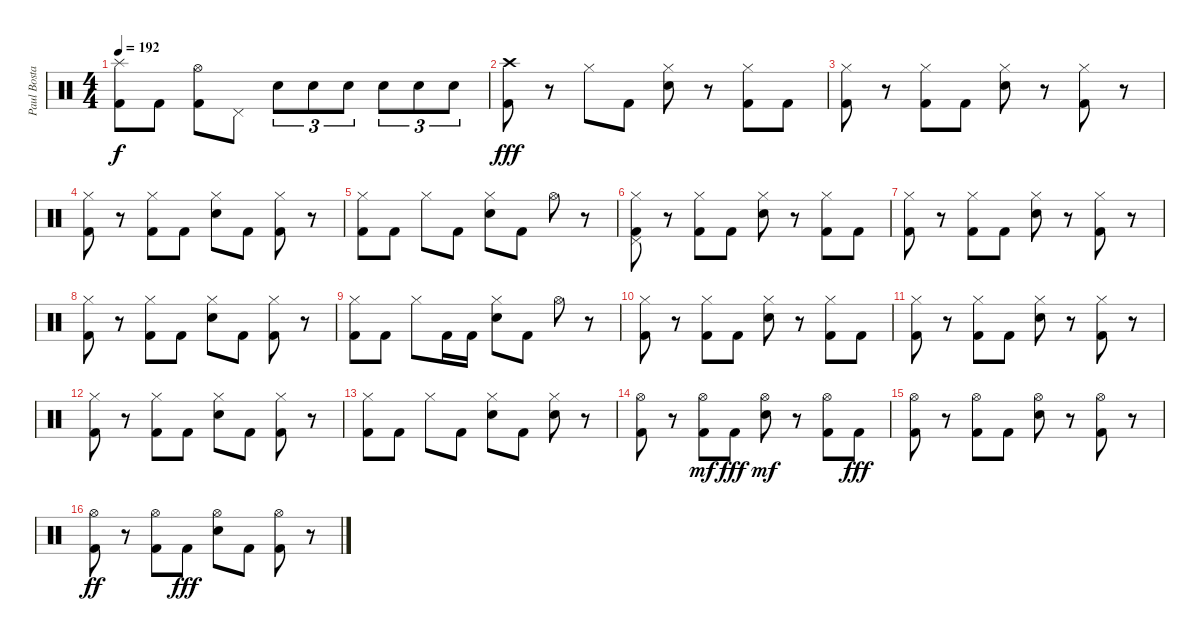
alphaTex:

\track ("Paul Bostaph" "Paul Bosta") {instrument percussion}
\staff {score}
\articulation defaults
\ts (4 4)
\tempo 192
\clef neutral
\ks c
("Splash (hit)" "Kick (hit) 2").8{dy f} "Kick (hit) 2".8 ("Hi-Hat (open)" "Kick (hit) 2").8 "Pedal Hi-Hat (hit)".8 "Electric Snare (hit)".8{tu (3 2)} "Electric Snare (hit)".8{tu (3 2)} "Electric Snare (hit)".8{tu (3 2)} "Electric Snare (hit)".8{tu (3 2)} "Electric Snare (hit)".8{tu (3 2)} "Electric Snare (hit)".8{tu (3 2)} |
("Crash high (hit)" "Kick (hit) 2").8{dy fff} r.8 "Hi-Hat (closed)".8 "Kick (hit) 2".8 ("Electric Snare (hit)" "Hi-Hat (closed)").8 r.8 ("Kick (hit) 2" "Hi-Hat (closed)").8 "Kick (hit) 2".8 |
("Kick (hit) 2" "Hi-Hat (closed)").8 r.8 ("Kick (hit) 2" "Hi-Hat (closed)").8 "Kick (hit) 2".8 ("Electric Snare (hit)" "Hi-Hat (closed)").8 r.8 ("Kick (hit) 2" "Hi-Hat (closed)").8 r.8 |
("Kick (hit) 2" "Hi-Hat (closed)").8 r.8 ("Kick (hit) 2" "Hi-Hat (closed)").8 "Kick (hit) 2".8 ("Electric Snare (hit)" "Hi-Hat (closed)").8 "Kick (hit) 2".8 ("Kick (hit) 2" "Hi-Hat (closed)").8 r.8 |
("Kick (hit) 2" "Hi-Hat (closed)").8 "Kick (hit) 2".8 "Hi-Hat (closed)".8 "Kick (hit) 2".8 ("Electric Snare (hit)" "Hi-Hat (closed)").8 "Kick (hit) 2".8 "Hi-Hat (open)".8 r.8 |
("Pedal Hi-Hat (hit)" "Kick (hit) 2" "Hi-Hat (closed)").8 r.8 ("Kick (hit) 2" "Hi-Hat (closed)").8 "Kick (hit) 2".8 ("Electric Snare (hit)" "Hi-Hat (closed)").8 r.8 ("Kick (hit) 2" "Hi-Hat (closed)").8 "Kick (hit) 2".8 |
("Kick (hit) 2" "Hi-Hat (closed)").8 r.8 ("Kick (hit) 2" "Hi-Hat (closed)").8 "Kick (hit) 2".8 ("Electric Snare (hit)" "Hi-Hat (closed)").8 r.8 ("Kick (hit) 2" "Hi-Hat (closed)").8 r.8 |
("Kick (hit) 2" "Hi-Hat (closed)").8 r.8 ("Kick (hit) 2" "Hi-Hat (closed)").8 "Kick (hit) 2".8 ("Electric Snare (hit)" "Hi-Hat (closed)").8 "Kick (hit) 2".8 ("Kick (hit) 2" "Hi-Hat (closed)").8 r.8 |
("Kick (hit) 2" "Hi-Hat (closed)").8 "Kick (hit) 2".8 "Hi-Hat (closed)".8 "Kick (hit) 2".16 "Kick (hit) 2".16 ("Electric Snare (hit)" "Hi-Hat (closed)").8 "Kick (hit) 2".8 "Hi-Hat (open)".8 r.8 |
("Hi-Hat (closed)" "Kick (hit) 2").8 r.8 ("Kick (hit) 2" "Hi-Hat (closed)").8 "Kick (hit) 2".8 ("Electric Snare (hit)" "Hi-Hat (closed)").8 r.8 ("Kick (hit) 2" "Hi-Hat (closed)").8 "Kick (hit) 2".8 |
("Kick (hit) 2" "Hi-Hat (closed)").8 r.8 ("Kick (hit) 2" "Hi-Hat (closed)").8 "Kick (hit) 2".8 ("Electric Snare (hit)" "Hi-Hat (closed)").8 r.8 ("Kick (hit) 2" "Hi-Hat (closed)").8 r.8 |
("Kick (hit) 2" "Hi-Hat (closed)").8 r.8 ("Kick (hit) 2" "Hi-Hat (closed)").8 "Kick (hit) 2".8 ("Electric Snare (hit)" "Hi-Hat (closed)").8 "Kick (hit) 2".8 ("Kick (hit) 2" "Hi-Hat (closed)").8 r.8 |
("Kick (hit) 2" "Hi-Hat (closed)").8 "Kick (hit) 2".8 "Hi-Hat (closed)".8 "Kick (hit) 2".8 ("Electric Snare (hit)" "Hi-Hat (closed)").8 "Kick (hit) 2".8 ("Electric Snare (hit)" "Hi-Hat (closed)").8 r.8 |
("Hi-Hat (open)" "Kick (hit) 2").8 r.8 ("Kick (hit) 2" "Hi-Hat (open)").8{dy mf} "Kick (hit) 2".8{dy fff} ("Electric Snare (hit)" "Hi-Hat (open)").8{dy mf} r.8 ("Kick (hit) 2" "Hi-Hat (open)").8 "Kick (hit) 2".8{dy fff} |
("Kick (hit) 2" "Hi-Hat (open)").8 r.8 ("Kick (hit) 2" "Hi-Hat (open)").8 "Kick (hit) 2".8 ("Electric Snare (hit)" "Hi-Hat (open)").8 r.8 ("Kick (hit) 2" "Hi-Hat (open)").8 r.8 |
("Kick (hit) 2" "Hi-Hat (open)").8{dy ff} r.8 ("Kick (hit) 2" "Hi-Hat (open)").8 "Kick (hit) 2".8{dy fff} ("Electric Snare (hit)" "Hi-Hat (open)").8 "Kick (hit) 2".8 ("Kick (hit) 2" "Hi-Hat (open)").8 r.8
